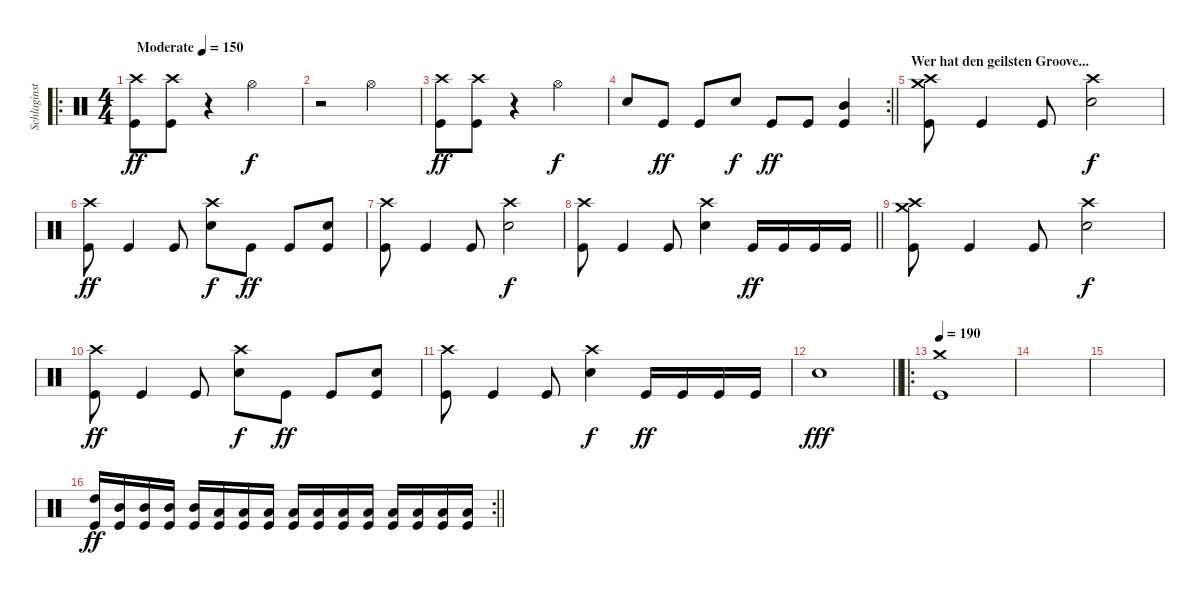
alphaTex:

\track ("Schlaginstrumente - Auswahl" "Schlaginst") {instrument percussion}
\staff {score}
\articulation defaults
\ro
\ts (4 4)
\tempo (150 "Moderate")
\clef neutral
\ks c
("Crash high (hit)" "Kick (hit)").8{dy ff} ("Crash high (hit)" "Kick (hit)").8 r.4 "Hi-Hat (open)".2{dy f} |
r.2 "Hi-Hat (open)".2 |
("Crash high (hit)" "Kick (hit)").8{dy ff} ("Crash high (hit)" "Kick (hit)").8 r.4 "Hi-Hat (open)".2{dy f} |
\rc 2
\barLineRight lightlight "Electric Snare (hit)".8 "Kick (hit)".8{dy ff} "Kick (hit)".8 "Electric Snare (hit)".8{dy f} "Kick (hit)".8{dy ff} "Kick (hit)".8
("Mid Tom (hit)" "Kick (hit)").4 |
\section ("" "Wer hat den geilsten Groove...")
("Crash medium (hit)" "Crash high (hit)" "Kick (hit)").8 "Kick (hit)".4 "Kick (hit)".8 ("Crash high (hit)" "Electric Snare (hit)").2{dy f} |
("Crash high (hit)" "Kick (hit)").8{dy ff} "Kick (hit)".4 "Kick (hit)".8 ("Crash high (hit)" "Electric Snare (hit)").8{dy f} "Kick (hit)".8{dy ff} "Kick (hit)".8 ("Electric Snare (hit)" "Kick (hit)").8 |
("Crash high (hit)" "Kick (hit)").8 "Kick (hit)".4 "Kick (hit)".8 ("Crash high (hit)" "Electric Snare (hit)").2{dy f} |
\barLineRight lightlight
("Crash high (hit)" "Kick (hit)").8 "Kick (hit)".4 "Kick (hit)".8 ("Crash high (hit)" "Electric Snare (hit)").4 "Kick (hit)".16{dy ff} "Kick (hit)".16 "Kick (hit)".16 "Kick (hit)".16 |
("Crash medium (hit)" "Crash high (hit)" "Kick (hit)").8 "Kick (hit)".4 "Kick (hit)".8 ("Crash high (hit)" "Electric Snare (hit)").2{dy f} |
("Crash high (hit)" "Kick (hit)").8{dy ff} "Kick (hit)".4 "Kick (hit)".8 ("Crash high (hit)" "Electric Snare (hit)").8{dy f} "Kick (hit)".8{dy ff} "Kick (hit)".8 ("Electric Snare (hit)" "Kick (hit)").8 |
("Crash high (hit)" "Kick (hit)").8 "Kick (hit)".4 "Kick (hit)".8 ("Crash high (hit)" "Electric Snare (hit)").4{dy f} "Kick (hit)".16{dy ff} "Kick (hit)".16 "Kick (hit)".16 "Kick (hit)".16 |
\barLineRight lightlight "Electric Snare (hit)".1{dy fff}
|
\ro
\tempo 190
("Crash medium (hit)" "Kick (hit)").1 |
|
|
\rc 2
\barLineRight lightlight
("High Tom (hit)" "Kick (hit)").16{dy ff} ("Mid Tom (hit)" "Kick (hit)").16 ("Mid Tom (hit)" "Kick (hit)").16 ("Mid Tom (hit)" "Kick (hit)").16 ("Mid Tom (hit)" "Kick (hit)").16 ("Low Tom (hit)" "Kick (hit)").16 ("Low Tom (hit)" "Kick (hit)").16 ("Low Tom (hit)" "Kick (hit)").16 ("Low Tom (hit)" "Kick (hit)").16 ("Low Floor Tom (hit)" "Kick (hit)").16 ("Low Floor Tom (hit)" "Kick (hit)").16 ("Low Floor Tom (hit)" "Kick (hit)").16 ("Low Floor Tom (hit)" "Kick (hit)").16 ("Low Floor Tom (hit)" "Kick (hit)").16 ("Low Floor Tom (hit)" "Kick (hit)").16 ("Low Floor Tom (hit)" "Kick (hit)").16
